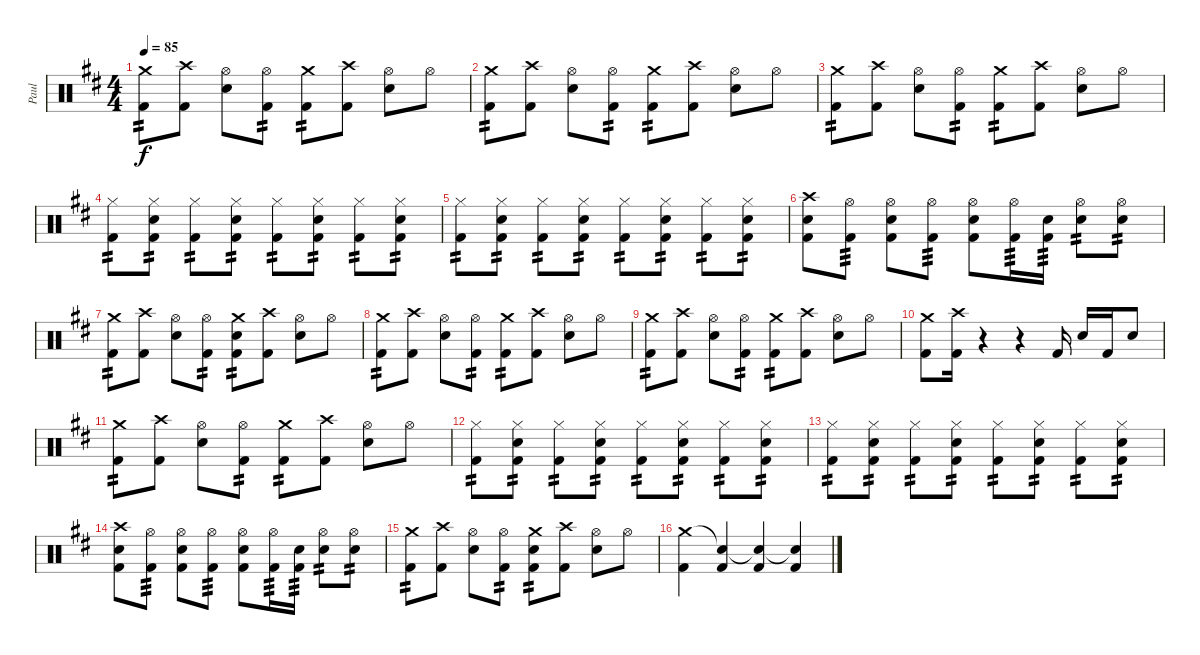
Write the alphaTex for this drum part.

\track ("Paul" "Paul") {instrument percussion}
\staff {score}
\articulation defaults
\ts (4 4)
\tempo 85
\clef neutral
\ks bminor
("Crash medium (hit)" "Kick (hit) 2").8{tp 2 dy f} ("Crash high (hit)" "Kick (hit) 2").8 ("Hi-Hat (open)" "Snare (hit) 2").8 ("Hi-Hat (open)" "Kick (hit) 2").8{tp 2} ("Crash medium (hit)" "Kick (hit) 2").8{tp 2} ("Crash high (hit)" "Kick (hit) 2").8 ("Hi-Hat (open)" "Snare (hit) 2").8 "Hi-Hat (open)".8 |
("Crash medium (hit)" "Kick (hit) 2").8{tp 2} ("Crash high (hit)" "Kick (hit) 2").8 ("Hi-Hat (open)" "Snare (hit) 2").8 ("Hi-Hat (open)" "Kick (hit) 2").8{tp 2} ("Crash medium (hit)" "Kick (hit) 2").8{tp 2} ("Crash high (hit)" "Kick (hit) 2").8 ("Hi-Hat (open)" "Snare (hit) 2").8 "Hi-Hat (open)".8 |
("Crash medium (hit)" "Kick (hit) 2").8{tp 2} ("Crash high (hit)" "Kick (hit) 2").8 ("Hi-Hat (open)" "Snare (hit) 2").8 ("Hi-Hat (open)" "Kick (hit) 2").8{tp 2} ("Crash medium (hit)" "Kick (hit) 2").8{tp 2} ("Crash high (hit)" "Kick (hit) 2").8 ("Hi-Hat (open)" "Snare (hit) 2").8 "Hi-Hat (open)".8 |
("Hi-Hat (closed)" "Kick (hit) 2").8{tp 2} ("Hi-Hat (closed)" "Snare (hit) 2" "Kick (hit) 2").8{tp 2} ("Hi-Hat (closed)" "Kick (hit) 2").8{tp 2} ("Hi-Hat (closed)" "Snare (hit) 2" "Kick (hit) 2").8{tp 2} ("Hi-Hat (closed)" "Kick (hit) 2").8{tp 2} ("Hi-Hat (closed)" "Snare (hit) 2" "Kick (hit) 2").8{tp 2} ("Hi-Hat (closed)" "Kick (hit) 2").8{tp 2} ("Hi-Hat (closed)" "Snare (hit) 2" "Kick (hit) 2").8{tp 2} |
("Hi-Hat (closed)" "Kick (hit) 2").8{tp 2} ("Hi-Hat (closed)" "Snare (hit) 2" "Kick (hit) 2").8{tp 2} ("Hi-Hat (closed)" "Kick (hit) 2").8{tp 2} ("Hi-Hat (closed)" "Snare (hit) 2" "Kick (hit) 2").8{tp 2} ("Hi-Hat (closed)" "Kick (hit) 2").8{tp 2} ("Hi-Hat (closed)" "Snare (hit) 2" "Kick (hit) 2").8{tp 2} ("Hi-Hat (closed)" "Kick (hit) 2").8{tp 2} ("Hi-Hat (closed)" "Snare (hit) 2" "Kick (hit) 2").8{tp 2} |
("Crash high (hit)" "Snare (hit) 2" "Kick (hit) 2").8 ("Hi-Hat (open)" "Kick (hit) 2").8{tp 3} ("Hi-Hat (open)" "Snare (hit) 2" "Kick (hit) 2").8 ("Hi-Hat (open)" "Kick (hit) 2").8{tp 3} ("Hi-Hat (open)" "Snare (hit) 2" "Kick (hit) 2").8 ("Hi-Hat (open)" "Kick (hit) 2").16{tp 3} ("Snare (hit) 2" "Kick (hit) 2").16{tp 3} ("Hi-Hat (open)" "Snare (hit) 2").8{tp 2} ("Hi-Hat (open)" "Snare (hit) 2").8{tp 2} |
("Crash medium (hit)" "Kick (hit) 2").8{tp 2} ("Crash high (hit)" "Kick (hit) 2").8 ("Hi-Hat (open)" "Snare (hit) 2").8 ("Hi-Hat (open)" "Kick (hit) 2").8{tp 2} ("Crash medium (hit)" "Snare (hit) 2" "Kick (hit) 2").8{tp 2} ("Crash high (hit)" "Kick (hit) 2").8 ("Hi-Hat (open)" "Snare (hit) 2").8 "Hi-Hat (open)".8 |
("Crash medium (hit)" "Kick (hit) 2").8{tp 2} ("Crash high (hit)" "Kick (hit) 2").8 ("Hi-Hat (open)" "Snare (hit) 2").8 ("Hi-Hat (open)" "Kick (hit) 2").8{tp 2} ("Crash medium (hit)" "Kick (hit) 2").8{tp 2} ("Crash high (hit)" "Kick (hit) 2").8 ("Hi-Hat (open)" "Snare (hit) 2").8 "Hi-Hat (open)".8 |
("Crash medium (hit)" "Kick (hit) 2").8{tp 2} ("Crash high (hit)" "Kick (hit) 2").8 ("Hi-Hat (open)" "Snare (hit) 2").8 ("Hi-Hat (open)" "Kick (hit) 2").8{tp 2} ("Crash medium (hit)" "Kick (hit) 2").8{tp 2} ("Crash high (hit)" "Kick (hit) 2").8 ("Hi-Hat (open)" "Snare (hit) 2").8 "Hi-Hat (open)".8 |
("Crash medium (hit)" "Kick (hit) 2").8 ("Crash high (hit)" "Kick (hit) 2").16 r.4 r.4 "Kick (hit) 2".16 "Snare (hit) 2".16 "Kick (hit) 2".16 "Snare (hit) 2".8 |
("Crash medium (hit)" "Kick (hit) 2").8{tp 2} ("Crash high (hit)" "Kick (hit) 2").8 ("Hi-Hat (open)" "Snare (hit) 2").8 ("Hi-Hat (open)" "Kick (hit) 2").8{tp 2} ("Crash medium (hit)" "Kick (hit) 2").8{tp 2} ("Crash high (hit)" "Kick (hit) 2").8 ("Hi-Hat (open)" "Snare (hit) 2").8 "Hi-Hat (open)".8 |
("Hi-Hat (closed)" "Kick (hit) 2").8{tp 2} ("Hi-Hat (closed)" "Snare (hit) 2" "Kick (hit) 2").8{tp 2} ("Hi-Hat (closed)" "Kick (hit) 2").8{tp 2} ("Hi-Hat (closed)" "Snare (hit) 2" "Kick (hit) 2").8{tp 2} ("Hi-Hat (closed)" "Kick (hit) 2").8{tp 2} ("Hi-Hat (closed)" "Snare (hit) 2" "Kick (hit) 2").8{tp 2} ("Hi-Hat (closed)" "Kick (hit) 2").8{tp 2} ("Hi-Hat (closed)" "Snare (hit) 2" "Kick (hit) 2").8{tp 2} |
("Hi-Hat (closed)" "Kick (hit) 2").8{tp 2} ("Hi-Hat (closed)" "Snare (hit) 2" "Kick (hit) 2").8{tp 2} ("Hi-Hat (closed)" "Kick (hit) 2").8{tp 2} ("Hi-Hat (closed)" "Snare (hit) 2" "Kick (hit) 2").8{tp 2} ("Hi-Hat (closed)" "Kick (hit) 2").8{tp 2} ("Hi-Hat (closed)" "Snare (hit) 2" "Kick (hit) 2").8{tp 2} ("Hi-Hat (closed)" "Kick (hit) 2").8{tp 2} ("Hi-Hat (closed)" "Snare (hit) 2" "Kick (hit) 2").8{tp 2} |
("Crash high (hit)" "Snare (hit) 2" "Kick (hit) 2").8 ("Hi-Hat (open)" "Kick (hit) 2").8{tp 3} ("Hi-Hat (open)" "Snare (hit) 2" "Kick (hit) 2").8 ("Hi-Hat (open)" "Kick (hit) 2").8{tp 3} ("Hi-Hat (open)" "Snare (hit) 2" "Kick (hit) 2").8 ("Hi-Hat (open)" "Kick (hit) 2").16{tp 3} ("Snare (hit) 2" "Kick (hit) 2").16{tp 3} ("Hi-Hat (open)" "Snare (hit) 2").8{tp 2} ("Hi-Hat (open)" "Snare (hit) 2").8{tp 2} |
("Crash medium (hit)" "Kick (hit) 2").8{tp 2} ("Crash high (hit)" "Kick (hit) 2").8 ("Hi-Hat (open)" "Snare (hit) 2").8 ("Hi-Hat (open)" "Kick (hit) 2").8{tp 2} ("Crash medium (hit)" "Snare (hit) 2" "Kick (hit) 2").8{tp 2} ("Crash high (hit)" "Kick (hit) 2").8 ("Hi-Hat (open)" "Snare (hit) 2").8 "Hi-Hat (open)".8 |
("Crash medium (hit)" "Kick (hit) 2").4 ("Snare (hit)"{t} "Kick (hit) 2").4 ("Snare (hit)"{t} "Kick (hit) 2").4 ("Snare (hit)"{t} "Kick (hit) 2").4
